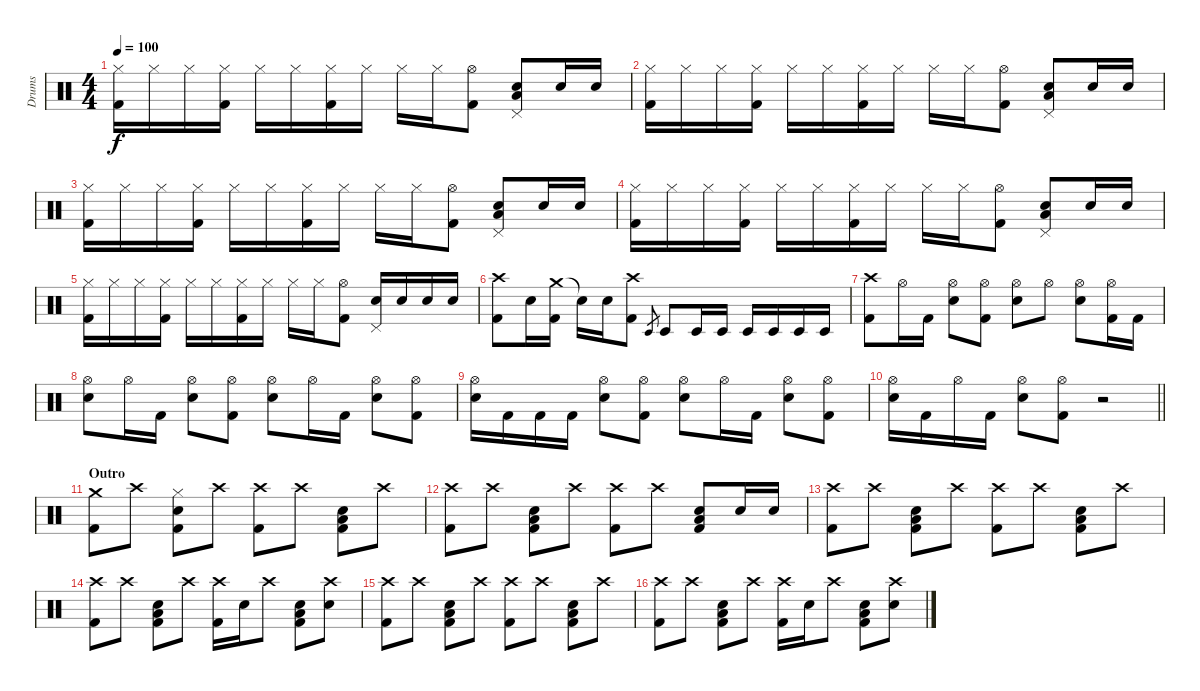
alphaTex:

\track ("Drums" "Drums") {instrument percussion}
\staff {score}
\articulation defaults
\ts (4 4)
\tempo 100
\clef neutral
\ks c
("Kick (hit) 2" "Hi-Hat (closed)").16{dy f} "Hi-Hat (closed)".16 "Hi-Hat (closed)".16 ("Hi-Hat (closed)" "Kick (hit) 2").16 "Hi-Hat (closed)".16 "Hi-Hat (closed)".16 ("Hi-Hat (closed)" "Kick (hit) 2").16 "Hi-Hat (closed)".16 "Hi-Hat (closed)".16 "Hi-Hat (closed)".16 ("Kick (hit) 2" "Hi-Hat (open)").8 ("Snare (hit) 2" "Low Floor Tom (hit)" "Pedal Hi-Hat (hit)").8 "Snare (hit) 2".16 "Snare (hit) 2".16 |
("Kick (hit) 2" "Hi-Hat (closed)").16 "Hi-Hat (closed)".16 "Hi-Hat (closed)".16 ("Hi-Hat (closed)" "Kick (hit) 2").16 "Hi-Hat (closed)".16 "Hi-Hat (closed)".16 ("Hi-Hat (closed)" "Kick (hit) 2").16 "Hi-Hat (closed)".16 "Hi-Hat (closed)".16 "Hi-Hat (closed)".16 ("Kick (hit) 2" "Hi-Hat (open)").8 ("Snare (hit) 2" "Low Floor Tom (hit)" "Pedal Hi-Hat (hit)").8 "Snare (hit) 2".16 "Snare (hit) 2".16 |
("Kick (hit) 2" "Hi-Hat (closed)").16 "Hi-Hat (closed)".16 "Hi-Hat (closed)".16 ("Hi-Hat (closed)" "Kick (hit) 2").16 "Hi-Hat (closed)".16 "Hi-Hat (closed)".16 ("Hi-Hat (closed)" "Kick (hit) 2").16 "Hi-Hat (closed)".16 "Hi-Hat (closed)".16 "Hi-Hat (closed)".16 ("Kick (hit) 2" "Hi-Hat (open)").8 ("Snare (hit) 2" "Low Floor Tom (hit)" "Pedal Hi-Hat (hit)").8 "Snare (hit) 2".16 "Snare (hit) 2".16 |
("Kick (hit) 2" "Hi-Hat (closed)").16 "Hi-Hat (closed)".16 "Hi-Hat (closed)".16 ("Hi-Hat (closed)" "Kick (hit) 2").16 "Hi-Hat (closed)".16 "Hi-Hat (closed)".16 ("Hi-Hat (closed)" "Kick (hit) 2").16 "Hi-Hat (closed)".16 "Hi-Hat (closed)".16 "Hi-Hat (closed)".16 ("Kick (hit) 2" "Hi-Hat (open)").8 ("Snare (hit) 2" "Low Floor Tom (hit)" "Pedal Hi-Hat (hit)").8 "Snare (hit) 2".16 "Snare (hit) 2".16 |
("Hi-Hat (closed)" "Kick (hit) 2").16 "Hi-Hat (closed)".16 "Hi-Hat (closed)".16 ("Hi-Hat (closed)" "Kick (hit) 2").16 "Hi-Hat (closed)".16 "Hi-Hat (closed)".16 ("Kick (hit) 2" "Hi-Hat (closed)").16 "Hi-Hat (closed)".16 "Hi-Hat (closed)".16 "Hi-Hat (closed)".16 ("Hi-Hat (open)" "Kick (hit) 2").8 ("Snare (hit) 2" "Pedal Hi-Hat (hit)").16 "Snare (hit) 2".16 "Snare (hit) 2".16 "Snare (hit) 2".16 |
("Crash high (hit)" "Kick (hit) 2").8 "Snare (hit) 2".16 ("Crash medium (hit)" "Kick (hit) 2").16 "Snare (hit)"{t}.16 "Snare (hit) 2".16 ("Kick (hit) 2" "Crash high (hit)").8 "Timbale low (hit)".8{gr} "Timbale low (hit)".8 "Timbale low (hit)".16 "Timbale low (hit)".16 "Timbale low (hit)".16 "Timbale low (hit)".16 "Timbale low (hit)".16 "Timbale low (hit)".16 |
("Kick (hit) 2" "Crash high (hit)").8 "Hi-Hat (open)".16 "Kick (hit) 2".16 ("Snare (hit) 2" "Hi-Hat (open)").8 ("Hi-Hat (open)" "Kick (hit) 2").8 ("Hi-Hat (open)" "Snare (hit) 2").8 "Hi-Hat (open)".8 ("Hi-Hat (open)" "Snare (hit) 2").8 ("Kick (hit) 2" "Hi-Hat (open)").16 "Kick (hit) 2".16 |
("Hi-Hat (open)" "Snare (hit) 2").8 "Hi-Hat (open)".16 "Kick (hit) 2".16 ("Hi-Hat (open)" "Snare (hit) 2").8 ("Hi-Hat (open)" "Kick (hit) 2").8 ("Snare (hit) 2" "Hi-Hat (open)").8 "Hi-Hat (open)".16 "Kick (hit) 2".16 ("Hi-Hat (open)" "Snare (hit) 2").8 ("Hi-Hat (open)" "Kick (hit) 2").8 |
("Hi-Hat (open)" "Snare (hit) 2").16 "Kick (hit) 2".16 "Kick (hit) 2".16 "Kick (hit) 2".16 ("Snare (hit) 2" "Hi-Hat (open)").8 ("Hi-Hat (open)" "Kick (hit) 2").8 ("Snare (hit) 2" "Hi-Hat (open)").8 "Hi-Hat (open)".16 "Kick (hit) 2".16 ("Hi-Hat (open)" "Snare (hit) 2").8 ("Kick (hit) 2" "Hi-Hat (open)").8 |
\barLineRight lightlight
("Hi-Hat (open)" "Snare (hit) 2").16 "Kick (hit) 2".16 "Hi-Hat (open)".16 "Kick (hit) 2".16 ("Snare (hit) 2" "Hi-Hat (open)").8 ("Kick (hit) 2" "Hi-Hat (open)").8 r.2 |
\section ("" "Outro")
("Kick (hit) 2" "Crash medium (hit)").8 "Crash high (hit)".8 ("Kick (hit) 2" "Snare (hit) 2" "Hi-Hat (closed)").8 "Crash high (hit)".8 ("Crash high (hit)" "Kick (hit) 2").8 "Crash high (hit)".8 ("Kick (hit) 2" "Low Floor Tom (hit)" "Snare (hit) 2").8 "Crash high (hit)".8 |
("Crash high (hit)" "Kick (hit) 2").8 "Crash high (hit)".8 ("Kick (hit) 2" "Low Floor Tom (hit)" "Snare (hit) 2").8 "Crash high (hit)".8 ("Kick (hit) 2" "Crash high (hit)").8 "Crash high (hit)".8 ("Kick (hit) 2" "Snare (hit) 2" "Low Floor Tom (hit)").8 "Snare (hit) 2".16 "Snare (hit) 2".16 |
("Crash high (hit)" "Kick (hit) 2").8 "Crash high (hit)".8 ("Kick (hit) 2" "Low Floor Tom (hit)" "Snare (hit) 2").8 "Crash high (hit)".8 ("Kick (hit) 2" "Crash high (hit)").8 "Crash high (hit)".8 ("Snare (hit) 2" "Kick (hit) 2" "Low Floor Tom (hit)").8 "Crash high (hit)".8 |
("Kick (hit) 2" "Crash high (hit)").8 "Crash high (hit)".8 ("Kick (hit) 2" "Snare (hit) 2" "Low Floor Tom (hit)").8 "Crash high (hit)".8 ("Crash high (hit)" "Kick (hit) 2").16 "Snare (hit) 2".16 "Crash high (hit)".8 ("Kick (hit) 2" "Snare (hit) 2" "Low Floor Tom (hit)").8 ("Crash high (hit)" "Snare (hit) 2").8 |
("Crash high (hit)" "Kick (hit) 2").8{volume 12} "Crash high (hit)".8 ("Kick (hit) 2" "Low Floor Tom (hit)" "Snare (hit) 2").8 "Crash high (hit)".8 ("Kick (hit) 2" "Crash high (hit)").8 "Crash high (hit)".8 ("Snare (hit) 2" "Kick (hit) 2" "Low Floor Tom (hit)").8 "Crash high (hit)".8 |
("Kick (hit) 2" "Crash high (hit)").8 "Crash high (hit)".8 ("Kick (hit) 2" "Snare (hit) 2" "Low Floor Tom (hit)").8 "Crash high (hit)".8 ("Crash high (hit)" "Kick (hit) 2").16 "Snare (hit) 2".16 "Crash high (hit)".8 ("Kick (hit) 2" "Snare (hit) 2" "Low Floor Tom (hit)").8 ("Crash high (hit)" "Snare (hit) 2").8
